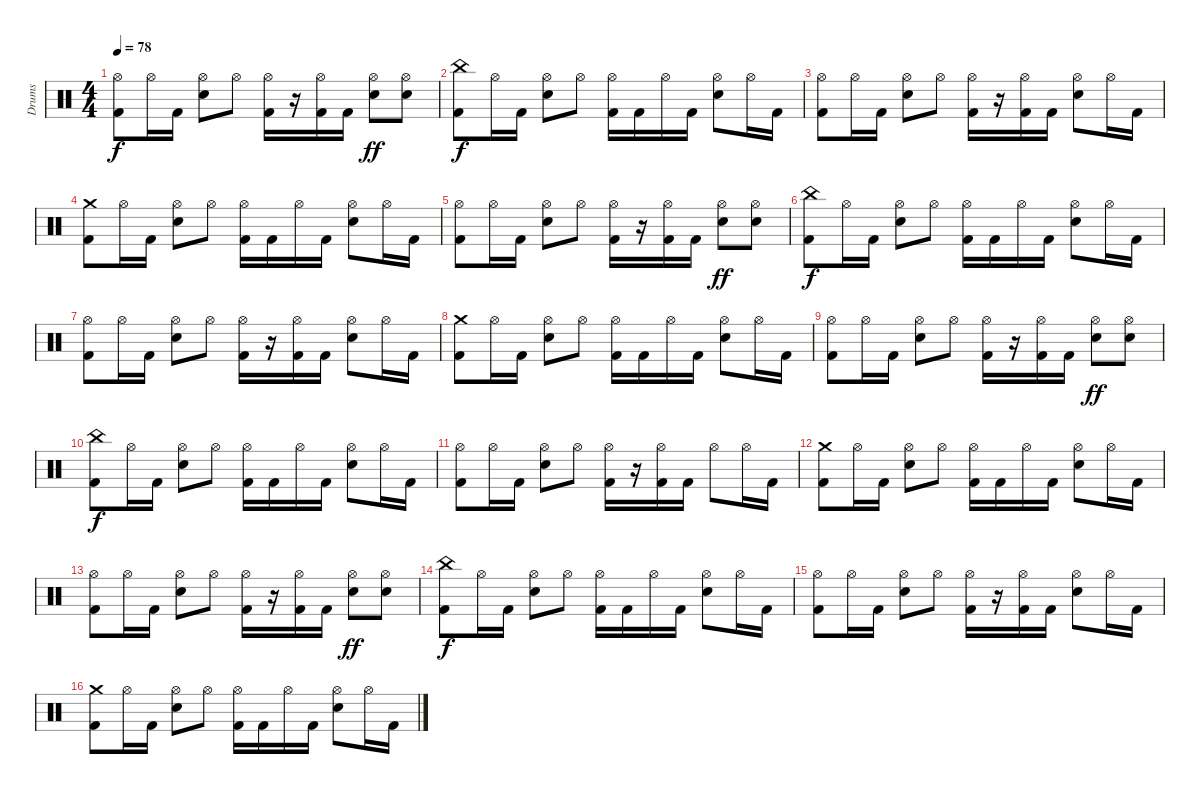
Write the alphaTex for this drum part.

\track ("Drums" "Drums") {instrument percussion}
\staff {score}
\articulation defaults
\ts (4 4)
\tempo 78
\clef neutral
\ks c
("Hi-Hat (open)" "Kick (hit) 2").8{dy f} "Hi-Hat (open)".16 "Kick (hit) 2".16 ("Hi-Hat (open)" "Electric Snare (hit)").8 "Hi-Hat (open)".8 ("Hi-Hat (open)" "Kick (hit) 2").16 r.16 ("Hi-Hat (open)" "Kick (hit) 2").16 "Kick (hit) 2".16 ("Hi-Hat (open)" "Electric Snare (hit)").8{dy ff} ("Hi-Hat (open)" "Electric Snare (hit)").8 |
("China (hit)" "Kick (hit) 2").8{dy f} "Hi-Hat (open)".16 "Kick (hit) 2".16 ("Hi-Hat (open)" "Electric Snare (hit)").8 "Hi-Hat (open)".8 ("Hi-Hat (open)" "Kick (hit) 2").16 "Kick (hit) 2".16 "Hi-Hat (open)".16 "Kick (hit) 2".16 ("Hi-Hat (open)" "Electric Snare (hit)").8 "Hi-Hat (open)".16 "Kick (hit) 2".16 |
("Hi-Hat (open)" "Kick (hit) 2").8 "Hi-Hat (open)".16 "Kick (hit) 2".16 ("Hi-Hat (open)" "Electric Snare (hit)").8 "Hi-Hat (open)".8 ("Hi-Hat (open)" "Kick (hit) 2").16 r.16 ("Hi-Hat (open)" "Kick (hit) 2").16 "Kick (hit) 2".16 ("Hi-Hat (open)" "Electric Snare (hit)").8 "Hi-Hat (open)".16 "Kick (hit) 2".16 |
("Crash medium (hit)" "Kick (hit) 2").8 "Hi-Hat (open)".16 "Kick (hit) 2".16 ("Hi-Hat (open)" "Electric Snare (hit)").8 "Hi-Hat (open)".8 ("Hi-Hat (open)" "Kick (hit) 2").16 "Kick (hit) 2".16 "Hi-Hat (open)".16 "Kick (hit) 2".16 ("Hi-Hat (open)" "Electric Snare (hit)").8 "Hi-Hat (open)".16 "Kick (hit) 2".16 |
("Hi-Hat (open)" "Kick (hit) 2").8 "Hi-Hat (open)".16 "Kick (hit) 2".16 ("Hi-Hat (open)" "Electric Snare (hit)").8 "Hi-Hat (open)".8 ("Hi-Hat (open)" "Kick (hit) 2").16 r.16 ("Hi-Hat (open)" "Kick (hit) 2").16 "Kick (hit) 2".16 ("Hi-Hat (open)" "Electric Snare (hit)").8{dy ff} ("Hi-Hat (open)" "Electric Snare (hit)").8 |
("China (hit)" "Kick (hit) 2").8{dy f} "Hi-Hat (open)".16 "Kick (hit) 2".16 ("Hi-Hat (open)" "Electric Snare (hit)").8 "Hi-Hat (open)".8 ("Hi-Hat (open)" "Kick (hit) 2").16 "Kick (hit) 2".16 "Hi-Hat (open)".16 "Kick (hit) 2".16 ("Hi-Hat (open)" "Electric Snare (hit)").8 "Hi-Hat (open)".16 "Kick (hit) 2".16 |
("Hi-Hat (open)" "Kick (hit) 2").8 "Hi-Hat (open)".16 "Kick (hit) 2".16 ("Hi-Hat (open)" "Electric Snare (hit)").8 "Hi-Hat (open)".8 ("Hi-Hat (open)" "Kick (hit) 2").16 r.16 ("Hi-Hat (open)" "Kick (hit) 2").16 "Kick (hit) 2".16 ("Hi-Hat (open)" "Electric Snare (hit)").8 "Hi-Hat (open)".16 "Kick (hit) 2".16 |
("Crash medium (hit)" "Kick (hit) 2").8 "Hi-Hat (open)".16 "Kick (hit) 2".16 ("Hi-Hat (open)" "Electric Snare (hit)").8 "Hi-Hat (open)".8 ("Hi-Hat (open)" "Kick (hit) 2").16 "Kick (hit) 2".16 "Hi-Hat (open)".16 "Kick (hit) 2".16 ("Hi-Hat (open)" "Electric Snare (hit)").8 "Hi-Hat (open)".16 "Kick (hit) 2".16 |
("Hi-Hat (open)" "Kick (hit) 2").8 "Hi-Hat (open)".16 "Kick (hit) 2".16 ("Hi-Hat (open)" "Electric Snare (hit)").8 "Hi-Hat (open)".8 ("Hi-Hat (open)" "Kick (hit) 2").16 r.16 ("Hi-Hat (open)" "Kick (hit) 2").16 "Kick (hit) 2".16 ("Hi-Hat (open)" "Electric Snare (hit)").8{dy ff} ("Hi-Hat (open)" "Electric Snare (hit)").8 |
("China (hit)" "Kick (hit) 2").8{dy f} "Hi-Hat (open)".16 "Kick (hit) 2".16 ("Hi-Hat (open)" "Electric Snare (hit)").8 "Hi-Hat (open)".8 ("Hi-Hat (open)" "Kick (hit) 2").16 "Kick (hit) 2".16 "Hi-Hat (open)".16 "Kick (hit) 2".16 ("Hi-Hat (open)" "Electric Snare (hit)").8 "Hi-Hat (open)".16 "Kick (hit) 2".16 |
("Hi-Hat (open)" "Kick (hit) 2").8 "Hi-Hat (open)".16 "Kick (hit) 2".16 ("Hi-Hat (open)" "Electric Snare (hit)").8 "Hi-Hat (open)".8 ("Hi-Hat (open)" "Kick (hit) 2").16 r.16 ("Hi-Hat (open)" "Kick (hit) 2").16 "Kick (hit) 2".16 "Hi-Hat (open)".8 "Hi-Hat (open)".16 "Kick (hit) 2".16 |
("Crash medium (hit)" "Kick (hit) 2").8 "Hi-Hat (open)".16 "Kick (hit) 2".16 ("Hi-Hat (open)" "Electric Snare (hit)").8 "Hi-Hat (open)".8 ("Hi-Hat (open)" "Kick (hit) 2").16 "Kick (hit) 2".16 "Hi-Hat (open)".16 "Kick (hit) 2".16 ("Hi-Hat (open)" "Electric Snare (hit)").8 "Hi-Hat (open)".16 "Kick (hit) 2".16 |
("Hi-Hat (open)" "Kick (hit) 2").8 "Hi-Hat (open)".16 "Kick (hit) 2".16 ("Hi-Hat (open)" "Electric Snare (hit)").8 "Hi-Hat (open)".8 ("Hi-Hat (open)" "Kick (hit) 2").16 r.16 ("Hi-Hat (open)" "Kick (hit) 2").16 "Kick (hit) 2".16 ("Hi-Hat (open)" "Electric Snare (hit)").8{dy ff} ("Hi-Hat (open)" "Electric Snare (hit)").8 |
("China (hit)" "Kick (hit) 2").8{dy f} "Hi-Hat (open)".16 "Kick (hit) 2".16 ("Hi-Hat (open)" "Electric Snare (hit)").8 "Hi-Hat (open)".8 ("Hi-Hat (open)" "Kick (hit) 2").16 "Kick (hit) 2".16 "Hi-Hat (open)".16 "Kick (hit) 2".16 ("Hi-Hat (open)" "Electric Snare (hit)").8 "Hi-Hat (open)".16 "Kick (hit) 2".16 |
("Hi-Hat (open)" "Kick (hit) 2").8 "Hi-Hat (open)".16 "Kick (hit) 2".16 ("Hi-Hat (open)" "Electric Snare (hit)").8 "Hi-Hat (open)".8 ("Hi-Hat (open)" "Kick (hit) 2").16 r.16 ("Hi-Hat (open)" "Kick (hit) 2").16 "Kick (hit) 2".16 ("Hi-Hat (open)" "Electric Snare (hit)").8 "Hi-Hat (open)".16 "Kick (hit) 2".16 |
("Crash medium (hit)" "Kick (hit) 2").8 "Hi-Hat (open)".16 "Kick (hit) 2".16 ("Hi-Hat (open)" "Electric Snare (hit)").8 "Hi-Hat (open)".8 ("Hi-Hat (open)" "Kick (hit) 2").16 "Kick (hit) 2".16 "Hi-Hat (open)".16 "Kick (hit) 2".16 ("Hi-Hat (open)" "Electric Snare (hit)").8 "Hi-Hat (open)".16 "Kick (hit) 2".16
